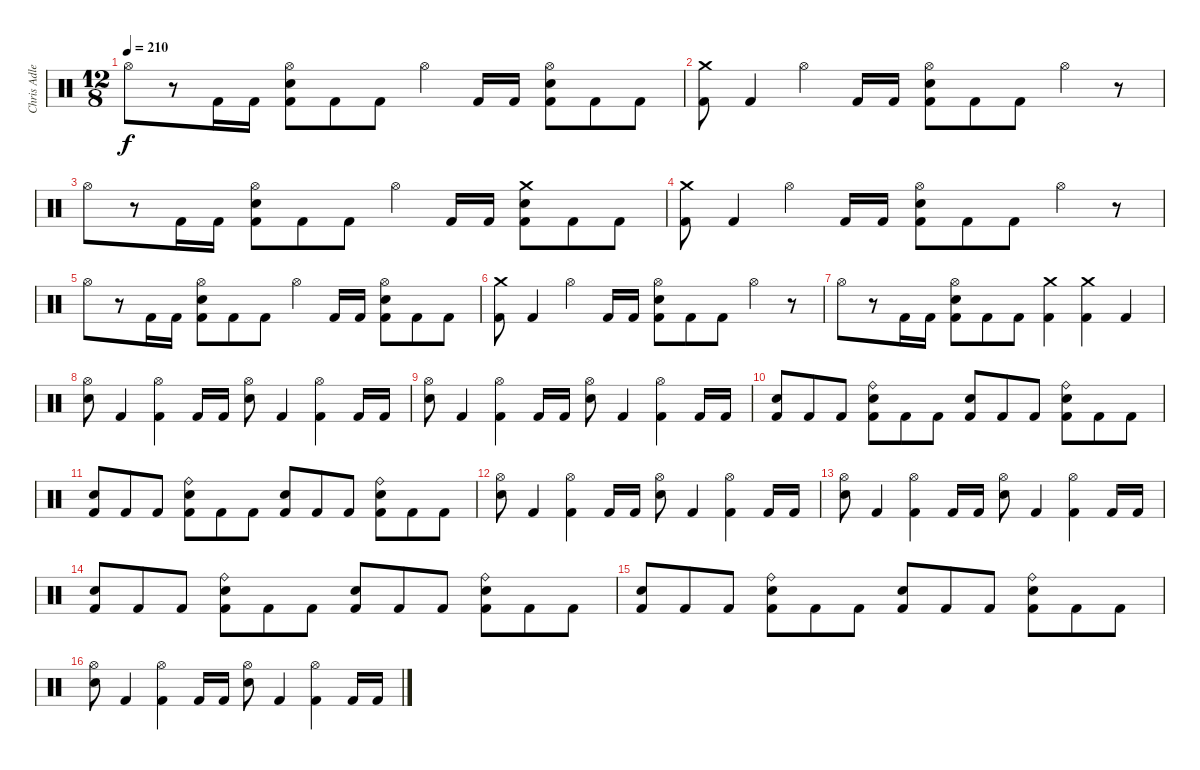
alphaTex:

\track ("Chris Adler" "Chris Adle") {instrument percussion}
\staff {score}
\articulation defaults
\ts (12 8)
\tempo 210
\clef neutral
\ks c "Hi-Hat (open)".8{dy f}
r.8 "Kick (hit) 2".16 "Kick (hit) 2".16 ("Hi-Hat (open)" "Snare (hit) 2" "Kick (hit) 2").8 "Kick (hit) 2".8 "Kick (hit) 2".8 "Hi-Hat (open)".4 "Kick (hit) 2".16 "Kick (hit) 2".16 ("Hi-Hat (open)" "Snare (hit) 2" "Kick (hit) 2").8 "Kick (hit) 2".8 "Kick (hit) 2".8 |
("Crash medium (hit)" "Kick (hit) 2").8 "Kick (hit) 2".4 "Hi-Hat (open)".4 "Kick (hit) 2".16 "Kick (hit) 2".16 ("Hi-Hat (open)" "Snare (hit) 2" "Kick (hit) 2").8 "Kick (hit) 2".8 "Kick (hit) 2".8 "Hi-Hat (open)".4 r.8 |
"Hi-Hat (open)".8 r.8 "Kick (hit) 2".16 "Kick (hit) 2".16 ("Hi-Hat (open)" "Snare (hit) 2" "Kick (hit) 2").8 "Kick (hit) 2".8 "Kick (hit) 2".8 "Hi-Hat (open)".4 "Kick (hit) 2".16 "Kick (hit) 2".16 ("Crash medium (hit)" "Snare (hit) 2" "Kick (hit) 2").8 "Kick (hit) 2".8 "Kick (hit) 2".8 |
("Crash medium (hit)" "Kick (hit) 2").8 "Kick (hit) 2".4 "Hi-Hat (open)".4 "Kick (hit) 2".16 "Kick (hit) 2".16 ("Hi-Hat (open)" "Snare (hit) 2" "Kick (hit) 2").8 "Kick (hit) 2".8 "Kick (hit) 2".8 "Hi-Hat (open)".4 r.8 |
"Hi-Hat (open)".8 r.8 "Kick (hit) 2".16 "Kick (hit) 2".16 ("Hi-Hat (open)" "Snare (hit) 2" "Kick (hit) 2").8 "Kick (hit) 2".8 "Kick (hit) 2".8 "Hi-Hat (open)".4 "Kick (hit) 2".16 "Kick (hit) 2".16 ("Hi-Hat (open)" "Snare (hit) 2" "Kick (hit) 2").8 "Kick (hit) 2".8 "Kick (hit) 2".8 |
("Crash medium (hit)" "Kick (hit) 2").8 "Kick (hit) 2".4 "Hi-Hat (open)".4 "Kick (hit) 2".16 "Kick (hit) 2".16 ("Hi-Hat (open)" "Snare (hit) 2" "Kick (hit) 2").8 "Kick (hit) 2".8 "Kick (hit) 2".8 "Hi-Hat (open)".4 r.8 |
"Hi-Hat (open)".8 r.8 "Kick (hit) 2".16 "Kick (hit) 2".16 ("Hi-Hat (open)" "Snare (hit) 2" "Kick (hit) 2").8 "Kick (hit) 2".8 "Kick (hit) 2".8 ("Crash medium (hit)" "Kick (hit) 2").4 ("Crash medium (hit)" "Kick (hit) 2").4 "Kick (hit) 2".4 |
("Hi-Hat (open)" "Snare (hit) 2").8 "Kick (hit) 2".4 ("Hi-Hat (open)" "Kick (hit) 2").4 "Kick (hit) 2".16 "Kick (hit) 2".16 ("Hi-Hat (open)" "Snare (hit) 2").8 "Kick (hit) 2".4 ("Hi-Hat (open)" "Kick (hit) 2").4 "Kick (hit) 2".16 "Kick (hit) 2".16 |
("Hi-Hat (open)" "Snare (hit) 2").8 "Kick (hit) 2".4 ("Hi-Hat (open)" "Kick (hit) 2").4 "Kick (hit) 2".16 "Kick (hit) 2".16 ("Hi-Hat (open)" "Snare (hit) 2").8 "Kick (hit) 2".4 ("Hi-Hat (open)" "Kick (hit) 2").4 "Kick (hit) 2".16 "Kick (hit) 2".16 |
("Snare (hit) 2" "Kick (hit) 2").8 "Kick (hit) 2".8 "Kick (hit) 2".8 ("Ride (bell)" "Snare (hit) 2" "Kick (hit) 2").8 "Kick (hit) 2".8 "Kick (hit) 2".8 ("Snare (hit) 2" "Kick (hit) 2").8 "Kick (hit) 2".8 "Kick (hit) 2".8 ("Ride (bell)" "Snare (hit) 2" "Kick (hit) 2").8 "Kick (hit) 2".8 "Kick (hit) 2".8 |
("Snare (hit) 2" "Kick (hit) 2").8 "Kick (hit) 2".8 "Kick (hit) 2".8 ("Ride (bell)" "Snare (hit) 2" "Kick (hit) 2").8 "Kick (hit) 2".8 "Kick (hit) 2".8 ("Snare (hit) 2" "Kick (hit) 2").8 "Kick (hit) 2".8 "Kick (hit) 2".8 ("Ride (bell)" "Snare (hit) 2" "Kick (hit) 2").8 "Kick (hit) 2".8 "Kick (hit) 2".8 |
("Hi-Hat (open)" "Snare (hit) 2").8 "Kick (hit) 2".4 ("Hi-Hat (open)" "Kick (hit) 2").4 "Kick (hit) 2".16 "Kick (hit) 2".16 ("Hi-Hat (open)" "Snare (hit) 2").8 "Kick (hit) 2".4 ("Hi-Hat (open)" "Kick (hit) 2").4 "Kick (hit) 2".16 "Kick (hit) 2".16 |
("Hi-Hat (open)" "Snare (hit) 2").8 "Kick (hit) 2".4 ("Hi-Hat (open)" "Kick (hit) 2").4 "Kick (hit) 2".16 "Kick (hit) 2".16 ("Hi-Hat (open)" "Snare (hit) 2").8 "Kick (hit) 2".4 ("Hi-Hat (open)" "Kick (hit) 2").4 "Kick (hit) 2".16 "Kick (hit) 2".16 |
("Snare (hit) 2" "Kick (hit) 2").8 "Kick (hit) 2".8 "Kick (hit) 2".8 ("Ride (bell)" "Snare (hit) 2" "Kick (hit) 2").8 "Kick (hit) 2".8 "Kick (hit) 2".8 ("Snare (hit) 2" "Kick (hit) 2").8 "Kick (hit) 2".8 "Kick (hit) 2".8 ("Ride (bell)" "Snare (hit) 2" "Kick (hit) 2").8 "Kick (hit) 2".8 "Kick (hit) 2".8 |
("Snare (hit) 2" "Kick (hit) 2").8 "Kick (hit) 2".8 "Kick (hit) 2".8 ("Ride (bell)" "Snare (hit) 2" "Kick (hit) 2").8 "Kick (hit) 2".8 "Kick (hit) 2".8 ("Snare (hit) 2" "Kick (hit) 2").8 "Kick (hit) 2".8 "Kick (hit) 2".8 ("Ride (bell)" "Snare (hit) 2" "Kick (hit) 2").8 "Kick (hit) 2".8 "Kick (hit) 2".8 |
("Hi-Hat (open)" "Snare (hit) 2").8 "Kick (hit) 2".4 ("Hi-Hat (open)" "Kick (hit) 2").4 "Kick (hit) 2".16 "Kick (hit) 2".16 ("Hi-Hat (open)" "Snare (hit) 2").8 "Kick (hit) 2".4 ("Hi-Hat (open)" "Kick (hit) 2").4 "Kick (hit) 2".16 "Kick (hit) 2".16
